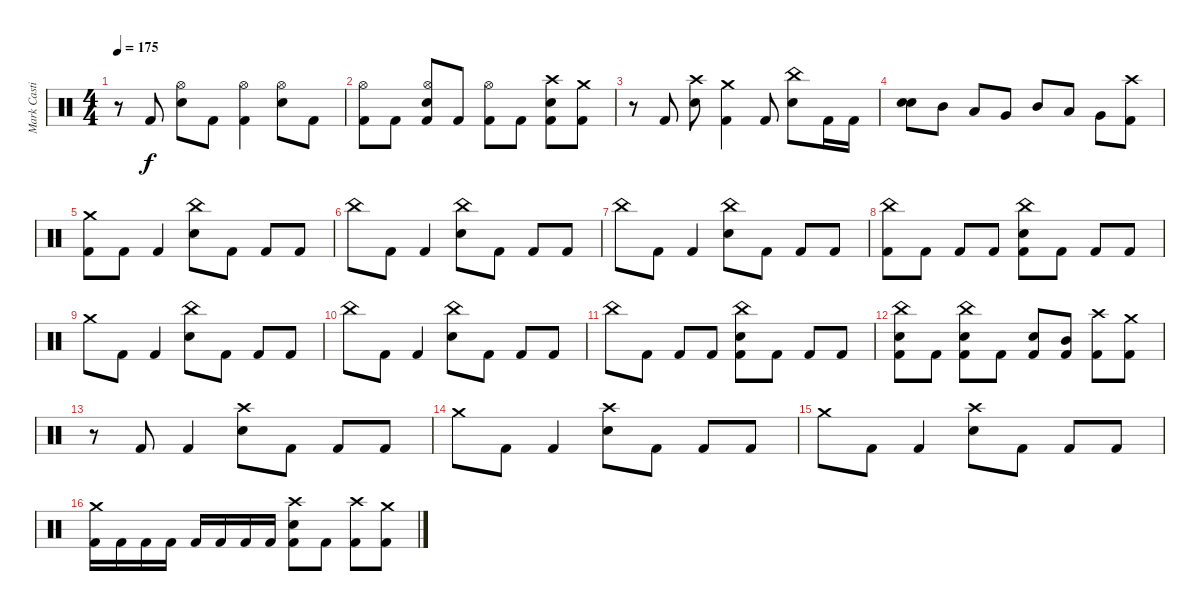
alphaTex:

\track ("Mark Castillo" "Mark Casti") {instrument percussion}
\staff {score}
\articulation defaults
\ts (4 4)
\tempo 175
\clef neutral
\ks c
r.8{dy f} "Kick (hit) 2".8 ("Hi-Hat (open)" "Electric Snare (hit)").8 "Kick (hit) 2".8 ("Hi-Hat (open)" "Kick (hit) 2").4 ("Hi-Hat (open)" "Electric Snare (hit)").8 "Kick (hit) 2".8 |
("Hi-Hat (open)" "Kick (hit) 2").8 "Kick (hit) 2".8 ("Hi-Hat (open)" "Electric Snare (hit)" "Kick (hit) 2").8 "Kick (hit) 2".8 ("Hi-Hat (open)" "Kick (hit) 2").8 "Kick (hit) 2".8 ("Crash high (hit)" "Electric Snare (hit)" "Kick (hit) 2").8 ("Crash medium (hit)" "Kick (hit) 2").8 |
r.8 "Kick (hit) 2".8 ("Crash high (hit)" "Electric Snare (hit)").8 ("Crash medium (hit)" "Kick (hit) 2").4 "Kick (hit) 2".8 ("China (hit)" "Electric Snare (hit)").8 "Kick (hit) 2".16 "Kick (hit) 2".16 |
("Electric Snare (hit)" "Electric Snare (hit)").8{bd 120} "Mid Tom (hit)".8 "Low Tom (hit)".8 "Very Low Tom (hit)".8 "Mid Tom (hit)".8 "Low Tom (hit)".8 "Very Low Tom (hit)".8 ("Crash high (hit)" "Kick (hit) 2").8 |
("Crash medium (hit)" "Kick (hit) 2").8 "Kick (hit) 2".8 "Kick (hit) 2".4 ("China (hit)" "Electric Snare (hit)").8 "Kick (hit) 2".8 "Kick (hit) 2".8 "Kick (hit) 2".8 |
"China (hit)".8 "Kick (hit) 2".8 "Kick (hit) 2".4 ("China (hit)" "Electric Snare (hit)").8 "Kick (hit) 2".8 "Kick (hit) 2".8 "Kick (hit) 2".8 |
"China (hit)".8 "Kick (hit) 2".8 "Kick (hit) 2".4 ("China (hit)" "Electric Snare (hit)").8 "Kick (hit) 2".8 "Kick (hit) 2".8 "Kick (hit) 2".8 |
("China (hit)" "Kick (hit) 2").8 "Kick (hit) 2".8 "Kick (hit) 2".8 "Kick (hit) 2".8 ("China (hit)" "Electric Snare (hit)" "Kick (hit) 2").8 "Kick (hit) 2".8 "Kick (hit) 2".8 "Kick (hit) 2".8 |
"Crash medium (hit)".8 "Kick (hit) 2".8 "Kick (hit) 2".4 ("China (hit)" "Electric Snare (hit)").8 "Kick (hit) 2".8 "Kick (hit) 2".8 "Kick (hit) 2".8 |
"China (hit)".8 "Kick (hit) 2".8 "Kick (hit) 2".4 ("China (hit)" "Electric Snare (hit)").8 "Kick (hit) 2".8 "Kick (hit) 2".8 "Kick (hit) 2".8 |
"China (hit)".8 "Kick (hit) 2".8 "Kick (hit) 2".8 "Kick (hit) 2".8 ("China (hit)" "Electric Snare (hit)" "Kick (hit) 2").8 "Kick (hit) 2".8 "Kick (hit) 2".8 "Kick (hit) 2".8 |
("China (hit)" "Electric Snare (hit)" "Kick (hit) 2").8 "Kick (hit) 2".8 ("China (hit)" "Electric Snare (hit)" "Kick (hit) 2").8 "Kick (hit) 2".8 ("Electric Snare (hit)" "Kick (hit) 2").8 ("Mid Tom (hit)" "Kick (hit) 2").8 ("Crash high (hit)" "Kick (hit) 2").8 ("Crash medium (hit)" "Kick (hit) 2").8 |
r.8 "Kick (hit) 2".8 "Kick (hit) 2".4 ("Crash high (hit)" "Electric Snare (hit)").8 "Kick (hit) 2".8 "Kick (hit) 2".8 "Kick (hit) 2".8 |
"Crash medium (hit)".8 "Kick (hit) 2".8 "Kick (hit) 2".4 ("Crash high (hit)" "Electric Snare (hit)").8 "Kick (hit) 2".8 "Kick (hit) 2".8 "Kick (hit) 2".8 |
"Crash medium (hit)".8 "Kick (hit) 2".8 "Kick (hit) 2".4 ("Crash high (hit)" "Electric Snare (hit)").8 "Kick (hit) 2".8 "Kick (hit) 2".8 "Kick (hit) 2".8 |
("Crash medium (hit)" "Kick (hit) 2").16 "Kick (hit) 2".16 "Kick (hit) 2".16 "Kick (hit) 2".16 "Kick (hit) 2".16 "Kick (hit) 2".16 "Kick (hit) 2".16 "Kick (hit) 2".16 ("Crash high (hit)" "Electric Snare (hit)" "Kick (hit) 2").8 "Kick (hit) 2".8 ("Crash high (hit)" "Kick (hit) 2").8 ("Crash medium (hit)" "Kick (hit) 2").8
